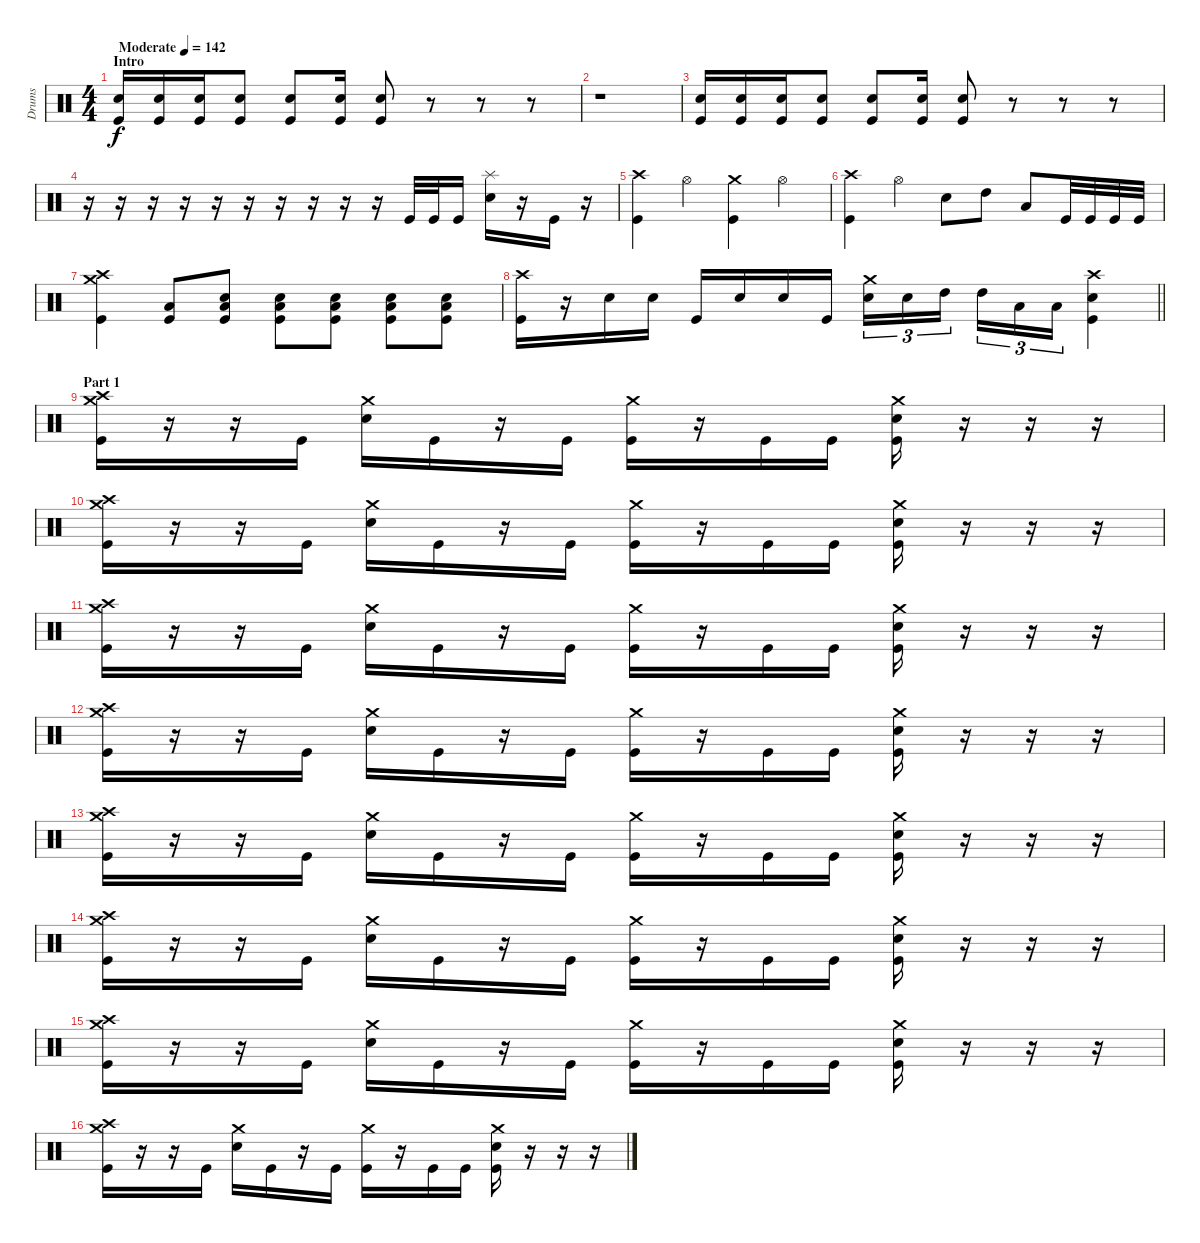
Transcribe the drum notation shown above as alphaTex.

\track ("Drums" "Drums") {instrument percussion}
\staff {score}
\articulation defaults
\ts (4 4)
\section ("" "Intro")
\tempo (142 "Moderate")
\clef neutral
\ks c
("Snare (hit) 2" "Kick (hit)").16{dy f} ("Snare (hit) 2" "Kick (hit)").16 ("Snare (hit) 2" "Kick (hit)").16 ("Snare (hit) 2" "Kick (hit)").8 ("Snare (hit) 2" "Kick (hit)").8 ("Snare (hit) 2" "Kick (hit)").16 ("Snare (hit) 2" "Kick (hit)").8 r.8 r.8 r.8 |
r.1 |
("Snare (hit) 2" "Kick (hit)").16 ("Snare (hit) 2" "Kick (hit)").16 ("Snare (hit) 2" "Kick (hit)").16 ("Snare (hit) 2" "Kick (hit)").8 ("Snare (hit) 2" "Kick (hit)").8 ("Snare (hit) 2" "Kick (hit)").16 ("Snare (hit) 2" "Kick (hit)").8 r.8 r.8 r.8 |
r.16 r.16 r.16 r.16 r.16 r.16 r.16 r.16 r.16 r.16 "Kick (hit)".32 "Kick (hit)".32 "Kick (hit)".16 ("Splash (hit)" "Snare (hit) 2").16 r.16 "Kick (hit)".16 r.16 |
("Crash high (hit)" "Kick (hit)").4 "Hi-Hat (open)".4 ("Crash medium (hit)" "Kick (hit)").4 "Hi-Hat (open)".4 |
("Crash high (hit)" "Kick (hit)").4 "Hi-Hat (open)".4 "Snare (hit) 2".8 "High Tom (hit)".8 "Low Tom (hit)".8 "Kick (hit)".32 "Kick (hit)".32 "Kick (hit)".32 "Kick (hit)".32 |
("Crash high (hit)" "Crash medium (hit)" "Kick (hit)").4 ("Low Floor Tom (hit)" "Kick (hit)").8 ("Snare (hit) 2" "Low Floor Tom (hit)" "Kick (hit)").8 ("Snare (hit) 2" "Low Floor Tom (hit)" "Kick (hit)").8 ("Snare (hit) 2" "Low Floor Tom (hit)" "Kick (hit)").8 ("Snare (hit) 2" "Low Floor Tom (hit)" "Kick (hit)").8 ("Snare (hit) 2" "Low Floor Tom (hit)" "Kick (hit)").8 |
\barLineRight lightlight
("Crash high (hit)" "Kick (hit)").16 r.16 "Snare (hit) 2".16 "Snare (hit) 2".16 "Kick (hit)".16 "Snare (hit) 2".16 "Snare (hit) 2".16 "Kick (hit)".16 ("Crash medium (hit)" "Snare (hit) 2").16{tu (3 2)} "Snare (hit) 2".16{tu (3 2)} "High Tom (hit)".16{tu (3 2) beam splitsecondary} "High Tom (hit)".16{tu (3 2)} "Low Tom (hit)".16{tu (3 2)} "Low Tom (hit)".16{tu (3 2)} ("Crash high (hit)" "Snare (hit) 2" "Kick (hit)").4 |
\section ("" "Part 1")
("Crash high (hit)" "Crash medium (hit)" "Kick (hit)").16 r.16 r.16 "Kick (hit)".16 ("Crash medium (hit)" "Snare (hit) 2").16 "Kick (hit)".16 r.16 "Kick (hit)".16 ("Crash medium (hit)" "Kick (hit)").16 r.16 "Kick (hit)".16 "Kick (hit)".16 ("Crash medium (hit)" "Snare (hit) 2" "Kick (hit)").16 r.16 r.16 r.16 |
("Crash high (hit)" "Crash medium (hit)" "Kick (hit)").16 r.16 r.16 "Kick (hit)".16 ("Crash medium (hit)" "Snare (hit) 2").16 "Kick (hit)".16 r.16 "Kick (hit)".16 ("Crash medium (hit)" "Kick (hit)").16 r.16 "Kick (hit)".16 "Kick (hit)".16 ("Crash medium (hit)" "Snare (hit) 2" "Kick (hit)").16 r.16 r.16 r.16 |
("Crash high (hit)" "Crash medium (hit)" "Kick (hit)").16 r.16 r.16 "Kick (hit)".16 ("Crash medium (hit)" "Snare (hit) 2").16 "Kick (hit)".16 r.16 "Kick (hit)".16 ("Crash medium (hit)" "Kick (hit)").16 r.16 "Kick (hit)".16 "Kick (hit)".16 ("Crash medium (hit)" "Snare (hit) 2" "Kick (hit)").16 r.16 r.16 r.16 |
("Crash high (hit)" "Crash medium (hit)" "Kick (hit)").16 r.16 r.16 "Kick (hit)".16 ("Crash medium (hit)" "Snare (hit) 2").16 "Kick (hit)".16 r.16 "Kick (hit)".16 ("Crash medium (hit)" "Kick (hit)").16 r.16 "Kick (hit)".16 "Kick (hit)".16 ("Crash medium (hit)" "Snare (hit) 2" "Kick (hit)").16 r.16 r.16 r.16 |
("Crash high (hit)" "Crash medium (hit)" "Kick (hit)").16 r.16 r.16 "Kick (hit)".16 ("Crash medium (hit)" "Snare (hit) 2").16 "Kick (hit)".16 r.16 "Kick (hit)".16 ("Crash medium (hit)" "Kick (hit)").16 r.16 "Kick (hit)".16 "Kick (hit)".16 ("Crash medium (hit)" "Snare (hit) 2" "Kick (hit)").16 r.16 r.16 r.16 |
("Crash high (hit)" "Crash medium (hit)" "Kick (hit)").16 r.16 r.16 "Kick (hit)".16 ("Crash medium (hit)" "Snare (hit) 2").16 "Kick (hit)".16 r.16 "Kick (hit)".16 ("Crash medium (hit)" "Kick (hit)").16 r.16 "Kick (hit)".16 "Kick (hit)".16 ("Crash medium (hit)" "Snare (hit) 2" "Kick (hit)").16 r.16 r.16 r.16 |
("Crash high (hit)" "Crash medium (hit)" "Kick (hit)").16 r.16 r.16 "Kick (hit)".16 ("Crash medium (hit)" "Snare (hit) 2").16 "Kick (hit)".16 r.16 "Kick (hit)".16 ("Crash medium (hit)" "Kick (hit)").16 r.16 "Kick (hit)".16 "Kick (hit)".16 ("Crash medium (hit)" "Snare (hit) 2" "Kick (hit)").16 r.16 r.16 r.16 |
("Crash high (hit)" "Crash medium (hit)" "Kick (hit)").16 r.16 r.16 "Kick (hit)".16 ("Crash medium (hit)" "Snare (hit) 2").16 "Kick (hit)".16 r.16 "Kick (hit)".16 ("Crash medium (hit)" "Kick (hit)").16 r.16 "Kick (hit)".16 "Kick (hit)".16 ("Crash medium (hit)" "Snare (hit) 2" "Kick (hit)").16 r.16 r.16 r.16
